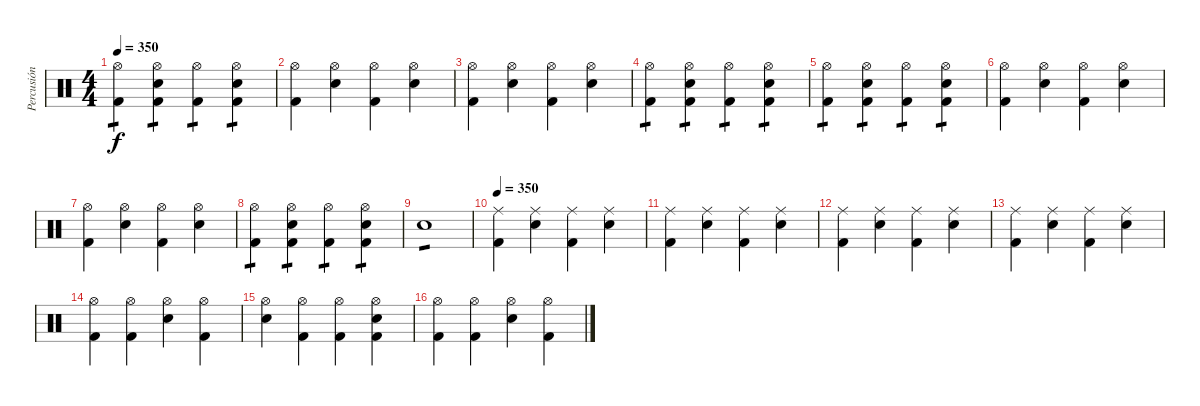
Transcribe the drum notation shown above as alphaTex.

\track ("Percusión" "Percusión") {instrument percussion}
\staff {score}
\articulation defaults
\ts (4 4)
\tempo 350
\clef neutral
\ks c
("Hi-Hat (open)" "Kick (hit) 2").4{tp 1 dy f} ("Hi-Hat (open)" "Electric Snare (hit)" "Kick (hit) 2").4{tp 1} ("Hi-Hat (open)" "Kick (hit) 2").4{tp 1} ("Hi-Hat (open)" "Electric Snare (hit)" "Kick (hit) 2").4{tp 1} |
("Hi-Hat (open)" "Kick (hit) 2").4 ("Hi-Hat (open)" "Electric Snare (hit)").4 ("Hi-Hat (open)" "Kick (hit) 2").4 ("Hi-Hat (open)" "Electric Snare (hit)").4 |
("Hi-Hat (open)" "Kick (hit) 2").4 ("Hi-Hat (open)" "Electric Snare (hit)").4 ("Hi-Hat (open)" "Kick (hit) 2").4 ("Hi-Hat (open)" "Electric Snare (hit)").4 |
("Hi-Hat (open)" "Kick (hit) 2").4{tp 1} ("Hi-Hat (open)" "Electric Snare (hit)" "Kick (hit) 2").4{tp 1} ("Hi-Hat (open)" "Kick (hit) 2").4{tp 1} ("Hi-Hat (open)" "Electric Snare (hit)" "Kick (hit) 2").4{tp 1} |
("Hi-Hat (open)" "Kick (hit) 2").4{tp 1} ("Hi-Hat (open)" "Electric Snare (hit)" "Kick (hit) 2").4{tp 1} ("Hi-Hat (open)" "Kick (hit) 2").4{tp 1} ("Hi-Hat (open)" "Electric Snare (hit)" "Kick (hit) 2").4{tp 1} |
("Hi-Hat (open)" "Kick (hit) 2").4 ("Hi-Hat (open)" "Electric Snare (hit)").4 ("Hi-Hat (open)" "Kick (hit) 2").4 ("Hi-Hat (open)" "Electric Snare (hit)").4 |
("Hi-Hat (open)" "Kick (hit) 2").4 ("Hi-Hat (open)" "Electric Snare (hit)").4 ("Hi-Hat (open)" "Kick (hit) 2").4 ("Hi-Hat (open)" "Electric Snare (hit)").4 |
("Hi-Hat (open)" "Kick (hit) 2").4{tp 1} ("Hi-Hat (open)" "Electric Snare (hit)" "Kick (hit) 2").4{tp 1} ("Hi-Hat (open)" "Kick (hit) 2").4{tp 1} ("Hi-Hat (open)" "Electric Snare (hit)" "Kick (hit) 2").4{tp 1} |
"Electric Snare (hit)".1{tp 1} |
\tempo 350
("Ride (middle)" "Kick (hit) 2").4 ("Ride (middle)" "Electric Snare (hit)").4 ("Ride (middle)" "Kick (hit) 2").4 ("Ride (middle)" "Electric Snare (hit)").4 |
("Ride (middle)" "Kick (hit) 2").4 ("Ride (middle)" "Electric Snare (hit)").4 ("Ride (middle)" "Kick (hit) 2").4 ("Ride (middle)" "Electric Snare (hit)").4 |
("Ride (middle)" "Kick (hit) 2").4 ("Ride (middle)" "Electric Snare (hit)").4 ("Ride (middle)" "Kick (hit) 2").4 ("Ride (middle)" "Electric Snare (hit)").4 |
("Ride (middle)" "Kick (hit) 2").4 ("Ride (middle)" "Electric Snare (hit)").4 ("Ride (middle)" "Kick (hit) 2").4 ("Ride (middle)" "Electric Snare (hit)").4 |
("Hi-Hat (open)" "Kick (hit) 2").4 ("Hi-Hat (open)" "Kick (hit) 2").4 ("Hi-Hat (open)" "Electric Snare (hit)").4 ("Hi-Hat (open)" "Kick (hit) 2").4 |
("Hi-Hat (open)" "Electric Snare (hit)").4 ("Hi-Hat (open)" "Kick (hit) 2").4 ("Hi-Hat (open)" "Kick (hit) 2").4 ("Hi-Hat (open)" "Electric Snare (hit)" "Kick (hit) 2").4 |
("Hi-Hat (open)" "Kick (hit) 2").4 ("Hi-Hat (open)" "Kick (hit) 2").4 ("Hi-Hat (open)" "Electric Snare (hit)").4 ("Hi-Hat (open)" "Kick (hit) 2").4
